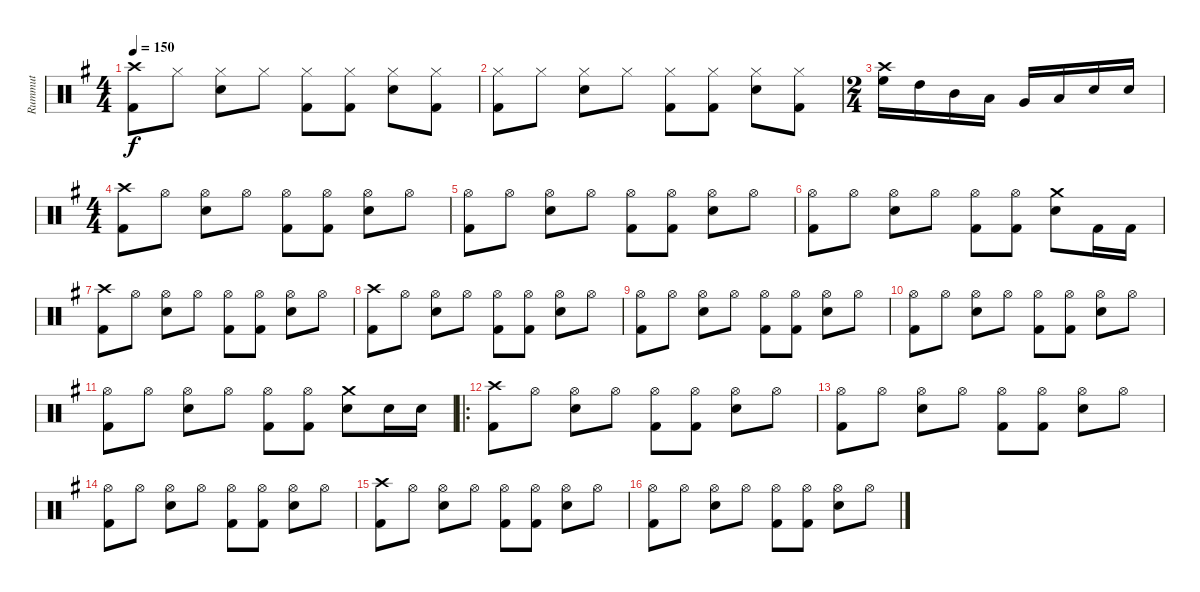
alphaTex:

\track ("Rummut" "Rummut") {instrument percussion}
\staff {score}
\articulation defaults
\ts (4 4)
\tempo 150
\clef neutral
\ks g
("Crash high (hit)" "Kick (hit) 2").8{dy f} "Hi-Hat (closed)".8 ("Hi-Hat (closed)" "Electric Snare (hit)").8 "Hi-Hat (closed)".8 ("Hi-Hat (closed)" "Kick (hit) 2").8 ("Hi-Hat (closed)" "Kick (hit) 2").8 ("Hi-Hat (closed)" "Electric Snare (hit)").8 ("Hi-Hat (closed)" "Kick (hit) 2").8 |
("Hi-Hat (closed)" "Kick (hit) 2").8 "Hi-Hat (closed)".8 ("Hi-Hat (closed)" "Electric Snare (hit)").8 "Hi-Hat (closed)".8 ("Hi-Hat (closed)" "Kick (hit) 2").8 ("Hi-Hat (closed)" "Kick (hit) 2").8 ("Hi-Hat (closed)" "Electric Snare (hit)").8 ("Hi-Hat (closed)" "Kick (hit) 2").8 |
\ts (2 4)
("Crash high (hit)" "High Floor Tom (hit)").16 "High Tom (hit)".16 "Mid Tom (hit)".16 "Low Tom (hit)".16 "Very Low Tom (hit)".16 "Low Floor Tom (hit)".16 "Electric Snare (hit)".16 "Electric Snare (hit)".16 |
\ts (4 4)
("Crash high (hit)" "Kick (hit) 2").8 "Hi-Hat (open)".8 ("Hi-Hat (open)" "Electric Snare (hit)").8 "Hi-Hat (open)".8 ("Hi-Hat (open)" "Kick (hit) 2").8 ("Hi-Hat (open)" "Kick (hit) 2").8 ("Hi-Hat (open)" "Electric Snare (hit)").8 "Hi-Hat (open)".8 |
("Hi-Hat (open)" "Kick (hit) 2").8 "Hi-Hat (open)".8 ("Hi-Hat (open)" "Electric Snare (hit)").8 "Hi-Hat (open)".8 ("Hi-Hat (open)" "Kick (hit) 2").8 ("Hi-Hat (open)" "Kick (hit) 2").8 ("Hi-Hat (open)" "Electric Snare (hit)").8 "Hi-Hat (open)".8 |
("Hi-Hat (open)" "Kick (hit) 2").8 "Hi-Hat (open)".8 ("Hi-Hat (open)" "Electric Snare (hit)").8 "Hi-Hat (open)".8 ("Hi-Hat (open)" "Kick (hit) 2").8 ("Hi-Hat (open)" "Kick (hit) 2").8 ("Crash medium (hit)" "Electric Snare (hit)").8 "Kick (hit) 2".16 "Kick (hit) 2".16 |
("Crash high (hit)" "Kick (hit) 2").8 "Hi-Hat (open)".8 ("Hi-Hat (open)" "Electric Snare (hit)").8 "Hi-Hat (open)".8 ("Hi-Hat (open)" "Kick (hit) 2").8 ("Hi-Hat (open)" "Kick (hit) 2").8 ("Hi-Hat (open)" "Electric Snare (hit)").8 "Hi-Hat (open)".8 |
("Crash high (hit)" "Kick (hit) 2").8 "Hi-Hat (open)".8 ("Hi-Hat (open)" "Electric Snare (hit)").8 "Hi-Hat (open)".8 ("Hi-Hat (open)" "Kick (hit) 2").8 ("Hi-Hat (open)" "Kick (hit) 2").8 ("Hi-Hat (open)" "Electric Snare (hit)").8 "Hi-Hat (open)".8 |
("Hi-Hat (open)" "Kick (hit) 2").8 "Hi-Hat (open)".8 ("Hi-Hat (open)" "Electric Snare (hit)").8 "Hi-Hat (open)".8 ("Hi-Hat (open)" "Kick (hit) 2").8 ("Hi-Hat (open)" "Kick (hit) 2").8 ("Hi-Hat (open)" "Electric Snare (hit)").8 "Hi-Hat (open)".8 |
("Hi-Hat (open)" "Kick (hit) 2").8 "Hi-Hat (open)".8 ("Hi-Hat (open)" "Electric Snare (hit)").8 "Hi-Hat (open)".8 ("Hi-Hat (open)" "Kick (hit) 2").8 ("Hi-Hat (open)" "Kick (hit) 2").8 ("Hi-Hat (open)" "Electric Snare (hit)").8 "Hi-Hat (open)".8 |
("Hi-Hat (open)" "Kick (hit) 2").8 "Hi-Hat (open)".8 ("Hi-Hat (open)" "Electric Snare (hit)").8 "Hi-Hat (open)".8 ("Hi-Hat (open)" "Kick (hit) 2").8 ("Hi-Hat (open)" "Kick (hit) 2").8 ("Crash medium (hit)" "Electric Snare (hit)").8 "Electric Snare (hit)".16 "Electric Snare (hit)".16 |
\ro
("Crash high (hit)" "Kick (hit) 2").8 "Hi-Hat (open)".8 ("Hi-Hat (open)" "Electric Snare (hit)").8 "Hi-Hat (open)".8 ("Hi-Hat (open)" "Kick (hit) 2").8 ("Hi-Hat (open)" "Kick (hit) 2").8 ("Hi-Hat (open)" "Electric Snare (hit)").8 "Hi-Hat (open)".8 |
("Hi-Hat (open)" "Kick (hit) 2").8 "Hi-Hat (open)".8 ("Hi-Hat (open)" "Electric Snare (hit)").8 "Hi-Hat (open)".8 ("Hi-Hat (open)" "Kick (hit) 2").8 ("Hi-Hat (open)" "Kick (hit) 2").8 ("Hi-Hat (open)" "Electric Snare (hit)").8 "Hi-Hat (open)".8 |
("Hi-Hat (open)" "Kick (hit) 2").8 "Hi-Hat (open)".8 ("Hi-Hat (open)" "Electric Snare (hit)").8 "Hi-Hat (open)".8 ("Hi-Hat (open)" "Kick (hit) 2").8 ("Hi-Hat (open)" "Kick (hit) 2").8 ("Hi-Hat (open)" "Electric Snare (hit)").8 "Hi-Hat (open)".8 |
("Crash high (hit)" "Kick (hit) 2").8 "Hi-Hat (open)".8 ("Hi-Hat (open)" "Electric Snare (hit)").8 "Hi-Hat (open)".8 ("Hi-Hat (open)" "Kick (hit) 2").8 ("Hi-Hat (open)" "Kick (hit) 2").8 ("Hi-Hat (open)" "Electric Snare (hit)").8 "Hi-Hat (open)".8 |
("Hi-Hat (open)" "Kick (hit) 2").8 "Hi-Hat (open)".8 ("Hi-Hat (open)" "Electric Snare (hit)").8 "Hi-Hat (open)".8 ("Hi-Hat (open)" "Kick (hit) 2").8 ("Hi-Hat (open)" "Kick (hit) 2").8 ("Hi-Hat (open)" "Electric Snare (hit)").8 "Hi-Hat (open)".8
